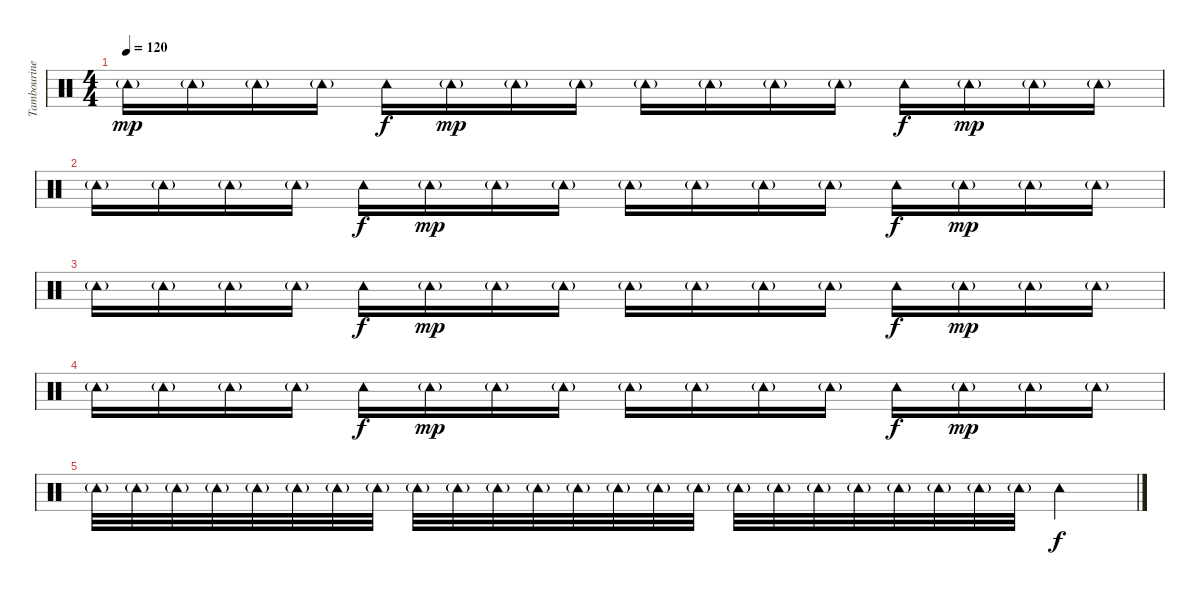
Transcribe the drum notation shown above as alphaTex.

\track ("Tambourine" "Tambourine") {instrument percussion}
\staff {score}
\articulation defaults
\ts (4 4)
\tempo 120
\clef neutral
\ks c "Tambourine (hit)"{g}.16{dy mp} "Tambourine (hit)"{g}.16 "Tambourine (hit)"{g}.16 "Tambourine (hit)"{g}.16 "Tambourine (hit)".16{dy f} "Tambourine (hit)"{g}.16{dy mp} "Tambourine (hit)"{g}.16 "Tambourine (hit)"{g}.16 "Tambourine (hit)"{g}.16 "Tambourine (hit)"{g}.16 "Tambourine (hit)"{g}.16 "Tambourine (hit)"{g}.16 "Tambourine (hit)".16{dy f} "Tambourine (hit)"{g}.16{dy mp} "Tambourine (hit)"{g}.16 "Tambourine (hit)"{g}.16
|
"Tambourine (hit)"{g}.16 "Tambourine (hit)"{g}.16 "Tambourine (hit)"{g}.16 "Tambourine (hit)"{g}.16 "Tambourine (hit)".16{dy f} "Tambourine (hit)"{g}.16{dy mp} "Tambourine (hit)"{g}.16 "Tambourine (hit)"{g}.16 "Tambourine (hit)"{g}.16 "Tambourine (hit)"{g}.16 "Tambourine (hit)"{g}.16 "Tambourine (hit)"{g}.16 "Tambourine (hit)".16{dy f} "Tambourine (hit)"{g}.16{dy mp} "Tambourine (hit)"{g}.16 "Tambourine (hit)"{g}.16 |
"Tambourine (hit)"{g}.16 "Tambourine (hit)"{g}.16 "Tambourine (hit)"{g}.16 "Tambourine (hit)"{g}.16 "Tambourine (hit)".16{dy f} "Tambourine (hit)"{g}.16{dy mp} "Tambourine (hit)"{g}.16 "Tambourine (hit)"{g}.16 "Tambourine (hit)"{g}.16 "Tambourine (hit)"{g}.16 "Tambourine (hit)"{g}.16 "Tambourine (hit)"{g}.16 "Tambourine (hit)".16{dy f} "Tambourine (hit)"{g}.16{dy mp} "Tambourine (hit)"{g}.16 "Tambourine (hit)"{g}.16 |
"Tambourine (hit)"{g}.16 "Tambourine (hit)"{g}.16 "Tambourine (hit)"{g}.16 "Tambourine (hit)"{g}.16 "Tambourine (hit)".16{dy f} "Tambourine (hit)"{g}.16{dy mp} "Tambourine (hit)"{g}.16 "Tambourine (hit)"{g}.16 "Tambourine (hit)"{g}.16 "Tambourine (hit)"{g}.16 "Tambourine (hit)"{g}.16 "Tambourine (hit)"{g}.16 "Tambourine (hit)".16{dy f} "Tambourine (hit)"{g}.16{dy mp} "Tambourine (hit)"{g}.16 "Tambourine (hit)"{g}.16 |
"Tambourine (hit)"{g}.32 "Tambourine (hit)"{g}.32 "Tambourine (hit)"{g}.32 "Tambourine (hit)"{g}.32 "Tambourine (hit)"{g}.32 "Tambourine (hit)"{g}.32 "Tambourine (hit)"{g}.32 "Tambourine (hit)"{g}.32 "Tambourine (hit)"{g}.32 "Tambourine (hit)"{g}.32 "Tambourine (hit)"{g}.32 "Tambourine (hit)"{g}.32 "Tambourine (hit)"{g}.32 "Tambourine (hit)"{g}.32 "Tambourine (hit)"{g}.32 "Tambourine (hit)"{g}.32 "Tambourine (hit)"{g}.32 "Tambourine (hit)"{g}.32 "Tambourine (hit)"{g}.32 "Tambourine (hit)"{g}.32 "Tambourine (hit)"{g}.32 "Tambourine (hit)"{g}.32 "Tambourine (hit)"{g}.32 "Tambourine (hit)"{g}.32 "Tambourine (hit)".4{dy f}
